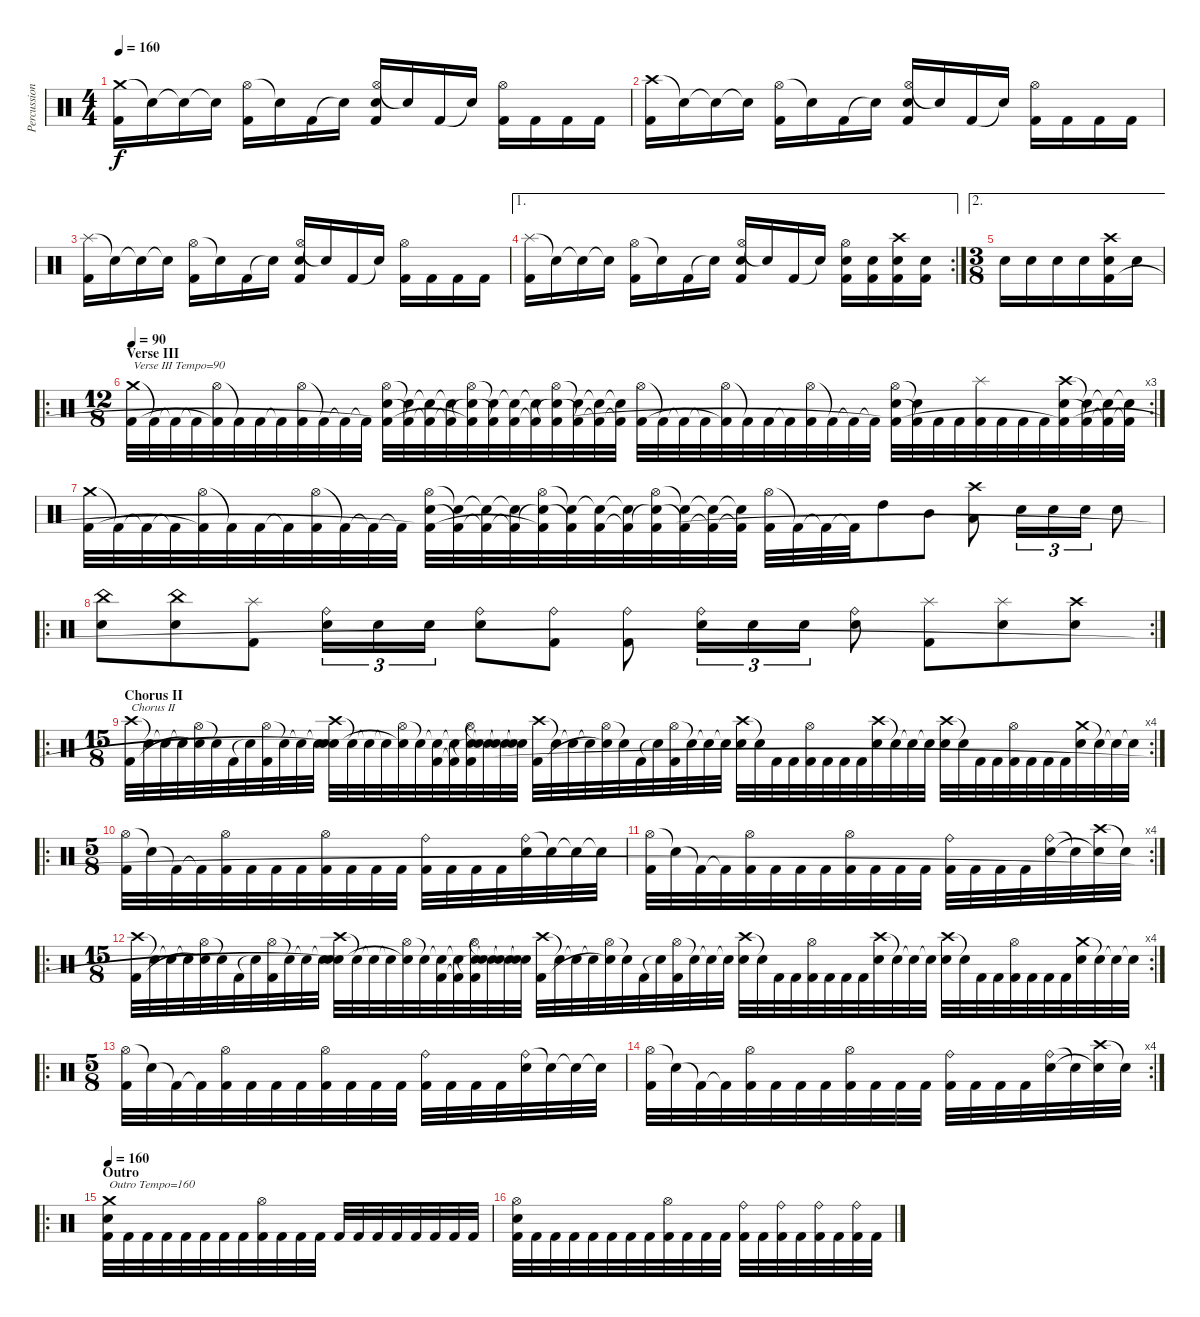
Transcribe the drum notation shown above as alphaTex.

\track ("Percussion [Patrick Robert]" "Percussion") {instrument percussion}
\staff {score}
\articulation defaults
\ts (4 4)
\tempo 160
\clef neutral
\ks c
("Crash medium (hit)" "Kick (hit) 2").16{dy f} "Snare (hit)"{t}.16 "Snare (hit)"{t}.16 "Snare (hit)"{t}.16 ("Hi-Hat (open)" "Kick (hit) 2").16 "Snare (hit)"{t}.16 "Kick (hit) 2".16 "Snare (hit)"{t}.16 ("Hi-Hat (open)" "Electric Snare (hit)" "Kick (hit) 2").16 "Snare (hit)"{t}.16 "Kick (hit) 2".16 "Snare (hit)"{t}.16 ("Hi-Hat (open)" "Kick (hit) 2").16 "Kick (hit) 2".16 "Kick (hit) 2".16 "Kick (hit) 2".16 |
("Crash high (hit)" "Kick (hit) 2").16 "Snare (hit)"{t}.16 "Snare (hit)"{t}.16 "Snare (hit)"{t}.16 ("Hi-Hat (open)" "Kick (hit) 2").16 "Snare (hit)"{t}.16 "Kick (hit) 2".16 "Snare (hit)"{t}.16 ("Hi-Hat (open)" "Electric Snare (hit)" "Kick (hit) 2").16 "Snare (hit)"{t}.16 "Kick (hit) 2".16 "Snare (hit)"{t}.16 ("Hi-Hat (open)" "Kick (hit) 2").16 "Kick (hit) 2".16 "Kick (hit) 2".16 "Kick (hit) 2".16 |
("Splash (hit)" "Kick (hit) 2").16 "Snare (hit)"{t}.16 "Snare (hit)"{t}.16 "Snare (hit)"{t}.16 ("Hi-Hat (open)" "Kick (hit) 2").16 "Snare (hit)"{t}.16 "Kick (hit) 2".16 "Snare (hit)"{t}.16 ("Hi-Hat (open)" "Electric Snare (hit)" "Kick (hit) 2").16 "Snare (hit)"{t}.16 "Kick (hit) 2".16 "Snare (hit)"{t}.16 ("Hi-Hat (open)" "Kick (hit) 2").16 "Kick (hit) 2".16 "Kick (hit) 2".16 "Kick (hit) 2".16 |
\ae 1
\rc 2
("Splash (hit)" "Kick (hit) 2").16 "Snare (hit)"{t}.16 "Snare (hit)"{t}.16 "Snare (hit)"{t}.16 ("Hi-Hat (open)" "Kick (hit) 2").16 "Snare (hit)"{t}.16 "Kick (hit) 2".16 "Snare (hit)"{t}.16 ("Hi-Hat (open)" "Electric Snare (hit)" "Kick (hit) 2").16 "Snare (hit)"{t}.16 "Kick (hit) 2".16 "Snare (hit)"{t}.16 ("Hi-Hat (open)" "Electric Snare (hit)" "Kick (hit) 2").16 ("Electric Snare (hit)" "Kick (hit) 2").16 ("Crash high (hit)" "Electric Snare (hit)" "Kick (hit) 2").16 ("Electric Snare (hit)" "Kick (hit) 2").16 |
\ae 2
\ts (3 8)
"Electric Snare (hit)".16 "Electric Snare (hit)".16 "Electric Snare (hit)".16 "Electric Snare (hit)".16 ("Crash high (hit)" "Electric Snare (hit)" "Kick (hit) 2").16 "Electric Snare (hit)".16 |
\ro
\rc 3
\ts (12 8)
\section ("" "Verse III")
\tempo 90
("Crash medium (hit)" "Kick (hit) 2").32{txt "Verse III Tempo=90"} "Kick (hit) 2"{t}.32 "Kick (hit) 2"{t}.32 "Kick (hit) 2"{t}.32 ("Hi-Hat (open)" "Kick (hit) 2"{t}).32 "Kick (hit) 2"{t}.32 "Kick (hit) 2".32 "Kick (hit) 2"{t}.32 ("Hi-Hat (open)" "Kick (hit) 2").32 "Kick (hit) 2"{t}.32 "Kick (hit) 2"{t}.32 "Kick (hit) 2"{t}.32 ("Hi-Hat (open)" "Electric Snare (hit)" "Kick (hit) 2"{t}).32 ("Snare (hit)"{t} "Kick (hit) 2"{t}).32 ("Snare (hit)"{t} "Kick (hit) 2"{t}).32 ("Snare (hit)"{t} "Kick (hit) 2"{t}).32 ("Hi-Hat (open)" "Snare (hit)"{t} "Kick (hit) 2"{t}).32 ("Snare (hit)"{t} "Kick (hit) 2"{t}).32 ("Snare (hit)"{t} "Kick (hit) 2").32 ("Snare (hit)"{t} "Kick (hit) 2"{t}).32 ("Hi-Hat (open)" "Snare (hit)"{t} "Kick (hit) 2").32 ("Snare (hit)"{t} "Kick (hit) 2"{t}).32 ("Snare (hit)"{t} "Kick (hit) 2"{t}).32 ("Snare (hit)"{t} "Kick (hit) 2"{t}).32 ("Hi-Hat (open)" "Kick (hit) 2").32 "Kick (hit) 2"{t}.32 "Kick (hit) 2"{t}.32 "Kick (hit) 2"{t}.32 ("Hi-Hat (open)" "Kick (hit) 2"{t}).32 "Kick (hit) 2"{t}.32 "Kick (hit) 2".32 "Kick (hit) 2"{t}.32 ("Hi-Hat (open)" "Kick (hit) 2").32 "Kick (hit) 2"{t}.32 "Kick (hit) 2"{t}.32 "Kick (hit) 2"{t}.32 ("Hi-Hat (open)" "Electric Snare (hit)" "Kick (hit) 2"{t}).32 ("Electric Snare (hit)"{t} "Kick (hit) 2"{t}).32 "Kick (hit) 2".32 "Kick (hit) 2".32 ("Splash (hit)" "Kick (hit) 2").32 "Kick (hit) 2".32 "Kick (hit) 2".32 "Kick (hit) 2".32 ("Crash high (hit)" "Electric Snare (hit)" "Kick (hit) 2"{t}).32 ("Snare (hit)"{t} "Kick (hit) 2"{t}).32 ("Snare (hit)"{t} "Kick (hit) 2"{t}).32 ("Snare (hit)"{t} "Kick (hit) 2"{t}).32 |
("Crash medium (hit)" "Kick (hit) 2").32 "Kick (hit) 2"{t}.32 "Kick (hit) 2"{t}.32 "Kick (hit) 2"{t}.32 ("Hi-Hat (open)" "Kick (hit) 2"{t}).32 "Kick (hit) 2"{t}.32 "Kick (hit) 2".32 "Kick (hit) 2"{t}.32 ("Hi-Hat (open)" "Kick (hit) 2").32 "Kick (hit) 2"{t}.32 "Kick (hit) 2"{t}.32 "Kick (hit) 2"{t}.32 ("Hi-Hat (open)" "Electric Snare (hit)" "Kick (hit) 2"{t}).32 ("Snare (hit)"{t} "Kick (hit) 2"{t}).32 ("Snare (hit)"{t} "Kick (hit) 2"{t}).32 ("Snare (hit)"{t} "Kick (hit) 2"{t}).32 ("Hi-Hat (open)" "Snare (hit)"{t} "Kick (hit) 2"{t}).32 ("Snare (hit)"{t} "Kick (hit) 2"{t}).32 ("Snare (hit)"{t} "Kick (hit) 2").32 ("Snare (hit)"{t} "Kick (hit) 2"{t}).32 ("Hi-Hat (open)" "Snare (hit)"{t} "Kick (hit) 2").32 ("Snare (hit)"{t} "Kick (hit) 2"{t}).32 ("Snare (hit)"{t} "Kick (hit) 2"{t}).32 ("Snare (hit)"{t} "Kick (hit) 2"{t}).32 ("Hi-Hat (open)" "Kick (hit) 2").32 "Kick (hit) 2"{t}.32 "Kick (hit) 2"{t}.32 "Kick (hit) 2"{t}.32 "High Tom (hit)".8 "Mid Tom (hit)".8 ("Crash high (hit)" "Low Tom (hit)").8 "Electric Snare (hit)".16{tu (3 2)} "Electric Snare (hit)".16{tu (3 2)} "Electric Snare (hit)".16{tu (3 2)} "Electric Snare (hit)".8 |
\ro
\rc 2
("China (hit)" "Electric Snare (hit)").8 ("China (hit)" "Electric Snare (hit)").8 ("Splash (hit)" "Kick (hit) 2").8 ("Ride (bell)" "Electric Snare (hit)").16{tu (3 2)} "Electric Snare (hit)".16{tu (3 2)} "Electric Snare (hit)".16{tu (3 2)} ("Ride (bell)" "Electric Snare (hit)").8 ("Ride (bell)" "Kick (hit) 2").8 ("Ride (bell)" "Kick (hit) 2").8 ("Ride (bell)" "Electric Snare (hit)").16{tu (3 2)} "Electric Snare (hit)".16{tu (3 2)} "Electric Snare (hit)".16{tu (3 2)} ("Ride (bell)" "Electric Snare (hit)").8 ("Splash (hit)" "Kick (hit) 2").8 ("Splash (hit)" "Electric Snare (hit)").8 ("Crash high (hit)" "Electric Snare (hit)").8 |
\ro
\rc 4
\ts (15 8)
\section ("" "Chorus II")
("Crash high (hit)" "Kick (hit) 2").32{txt "Chorus II"} "Snare (hit)"{t}.32 "Snare (hit)"{t}.32 "Snare (hit)"{t}.32 ("Hi-Hat (open)" "Snare (hit)"{t}).32 "Snare (hit)"{t}.32 "Kick (hit) 2".32 "Snare (hit)"{t}.32 ("Hi-Hat (open)" "Kick (hit) 2").32 "Snare (hit)"{t}.32 "Snare (hit)"{t}.32 "Snare (hit)"{t}.32 ("Crash high (hit)" "Electric Snare (hit)" "Snare (hit)"{t}).32 "Snare (hit)"{t}.32 "Snare (hit)"{t}.32 "Snare (hit)"{t}.32 ("Hi-Hat (open)" "Snare (hit)"{t}).32 "Snare (hit)"{t}.32 ("Snare (hit)"{t} "Kick (hit) 2").32 ("Snare (hit)"{t} "Kick (hit) 2"{t}).32 ("Hi-Hat (open)" "Snare (hit)"{t} "Kick (hit) 2").32 ("Snare (hit)"{t} "Snare (hit)"{t}).32 ("Snare (hit)"{t} "Snare (hit)"{t}).32 ("Snare (hit)"{t} "Snare (hit)"{t}).32 ("Crash high (hit)" "Kick (hit) 2").32 "Snare (hit)"{t}.32 "Snare (hit)"{t}.32 "Snare (hit)"{t}.32 ("Hi-Hat (open)" "Snare (hit)"{t}).32 "Snare (hit)"{t}.32 "Kick (hit) 2".32 "Snare (hit)"{t}.32 ("Hi-Hat (open)" "Kick (hit) 2").32 "Snare (hit)"{t}.32 "Snare (hit)"{t}.32 "Snare (hit)"{t}.32 ("Crash high (hit)" "Electric Snare (hit)").32 "Snare (hit)"{t}.32 "Kick (hit) 2".32 "Kick (hit) 2".32 ("Hi-Hat (open)" "Kick (hit) 2").32 "Kick (hit) 2".32 "Kick (hit) 2".32 "Kick (hit) 2".32 ("Crash high (hit)" "Electric Snare (hit)").32 "Snare (hit)"{t}.32 "Snare (hit)"{t}.32 "Snare (hit)"{t}.32 ("Crash high (hit)" "Electric Snare (hit)").32 "Snare (hit)"{t}.32 "Kick (hit) 2".32 "Kick (hit) 2".32 ("Hi-Hat (open)" "Kick (hit) 2").32 "Kick (hit) 2".32 "Kick (hit) 2".32 "Kick (hit) 2".32 ("Crash medium (hit)" "Electric Snare (hit)").32 "Snare (hit)"{t}.32 "Snare (hit)"{t}.32 "Snare (hit)"{t}.32 |
\ro
\ts (5 8)
("Hi-Hat (open)" "Kick (hit) 2").32 "Snare (hit)"{t}.32 "Kick (hit) 2"{t}.32 "Kick (hit) 2"{t}.32 ("Hi-Hat (open)" "Kick (hit) 2").32 "Kick (hit) 2".32 "Kick (hit) 2".32 "Kick (hit) 2".32 ("Hi-Hat (open)" "Kick (hit) 2").32 "Kick (hit) 2".32 "Kick (hit) 2".32 "Kick (hit) 2".32 ("Ride (bell)" "Kick (hit) 2").32 "Kick (hit) 2".32 "Kick (hit) 2".32 "Kick (hit) 2".32 ("Ride (bell)" "Electric Snare (hit)").32 "Snare (hit)"{t}.32 "Snare (hit)"{t}.32 "Snare (hit)"{t}.32 |
\rc 4
("Hi-Hat (open)" "Kick (hit) 2").32 "Snare (hit)"{t}.32 "Kick (hit) 2"{t}.32 "Kick (hit) 2"{t}.32 ("Hi-Hat (open)" "Kick (hit) 2").32 "Kick (hit) 2".32 "Kick (hit) 2".32 "Kick (hit) 2".32 ("Hi-Hat (open)" "Kick (hit) 2").32 "Kick (hit) 2".32 "Kick (hit) 2".32 "Kick (hit) 2".32 ("Ride (bell)" "Kick (hit) 2").32 "Kick (hit) 2".32 "Kick (hit) 2".32 "Kick (hit) 2".32 ("Ride (bell)" "Electric Snare (hit)").32 "Snare (hit)"{t}.32 ("Crash high (hit)" "Snare (hit)"{t}).32 "Snare (hit)"{t}.32 |
\ro
\rc 4
\ts (15 8)
("Crash high (hit)" "Kick (hit) 2").32 "Snare (hit)"{t}.32 "Snare (hit)"{t}.32 "Snare (hit)"{t}.32 ("Hi-Hat (open)" "Snare (hit)"{t}).32 "Snare (hit)"{t}.32 "Kick (hit) 2".32 "Snare (hit)"{t}.32 ("Hi-Hat (open)" "Kick (hit) 2").32 "Snare (hit)"{t}.32 "Snare (hit)"{t}.32 "Snare (hit)"{t}.32 ("Crash high (hit)" "Electric Snare (hit)" "Snare (hit)"{t}).32 "Snare (hit)"{t}.32 "Snare (hit)"{t}.32 "Snare (hit)"{t}.32 ("Hi-Hat (open)" "Snare (hit)"{t}).32 "Snare (hit)"{t}.32 ("Snare (hit)"{t} "Kick (hit) 2").32 ("Snare (hit)"{t} "Kick (hit) 2"{t}).32 ("Hi-Hat (open)" "Snare (hit)"{t} "Kick (hit) 2").32 ("Snare (hit)"{t} "Snare (hit)"{t}).32 ("Snare (hit)"{t} "Snare (hit)"{t}).32 ("Snare (hit)"{t} "Snare (hit)"{t}).32 ("Crash high (hit)" "Kick (hit) 2").32 "Snare (hit)"{t}.32 "Snare (hit)"{t}.32 "Snare (hit)"{t}.32 ("Hi-Hat (open)" "Snare (hit)"{t}).32 "Snare (hit)"{t}.32 "Kick (hit) 2".32 "Snare (hit)"{t}.32 ("Hi-Hat (open)" "Kick (hit) 2").32 "Snare (hit)"{t}.32 "Snare (hit)"{t}.32 "Snare (hit)"{t}.32 ("Crash high (hit)" "Electric Snare (hit)").32 "Snare (hit)"{t}.32 "Kick (hit) 2".32 "Kick (hit) 2".32 ("Hi-Hat (open)" "Kick (hit) 2").32 "Kick (hit) 2".32 "Kick (hit) 2".32 "Kick (hit) 2".32 ("Crash high (hit)" "Electric Snare (hit)").32 "Snare (hit)"{t}.32 "Snare (hit)"{t}.32 "Snare (hit)"{t}.32 ("Crash high (hit)" "Electric Snare (hit)").32 "Snare (hit)"{t}.32 "Kick (hit) 2".32 "Kick (hit) 2".32 ("Hi-Hat (open)" "Kick (hit) 2").32 "Kick (hit) 2".32 "Kick (hit) 2".32 "Kick (hit) 2".32 ("Crash medium (hit)" "Electric Snare (hit)").32 "Snare (hit)"{t}.32 "Snare (hit)"{t}.32 "Snare (hit)"{t}.32 |
\ro
\ts (5 8)
("Hi-Hat (open)" "Kick (hit) 2").32 "Snare (hit)"{t}.32 "Kick (hit) 2"{t}.32 "Kick (hit) 2"{t}.32 ("Hi-Hat (open)" "Kick (hit) 2").32 "Kick (hit) 2".32 "Kick (hit) 2".32 "Kick (hit) 2".32 ("Hi-Hat (open)" "Kick (hit) 2").32 "Kick (hit) 2".32 "Kick (hit) 2".32 "Kick (hit) 2".32 ("Ride (bell)" "Kick (hit) 2").32 "Kick (hit) 2".32 "Kick (hit) 2".32 "Kick (hit) 2".32 ("Ride (bell)" "Electric Snare (hit)").32 "Snare (hit)"{t}.32 "Snare (hit)"{t}.32 "Snare (hit)"{t}.32 |
\rc 4
("Hi-Hat (open)" "Kick (hit) 2").32 "Snare (hit)"{t}.32 "Kick (hit) 2"{t}.32 "Kick (hit) 2"{t}.32 ("Hi-Hat (open)" "Kick (hit) 2").32 "Kick (hit) 2".32 "Kick (hit) 2".32 "Kick (hit) 2".32 ("Hi-Hat (open)" "Kick (hit) 2").32 "Kick (hit) 2".32 "Kick (hit) 2".32 "Kick (hit) 2".32 ("Ride (bell)" "Kick (hit) 2").32 "Kick (hit) 2".32 "Kick (hit) 2".32 "Kick (hit) 2".32 ("Ride (bell)" "Electric Snare (hit)").32 "Snare (hit)"{t}.32 ("Crash high (hit)" "Snare (hit)"{t}).32 "Snare (hit)"{t}.32 |
\ro
\section ("" "Outro")
\tempo 160
("Crash medium (hit)" "Electric Snare (hit)" "Kick (hit) 2").32{txt "Outro Tempo=160"} "Kick (hit) 2".32 "Kick (hit) 2".32 "Kick (hit) 2".32 "Kick (hit) 2".32 "Kick (hit) 2".32 "Kick (hit) 2".32 "Kick (hit) 2".32 ("Hi-Hat (open)" "Kick (hit) 2").32 "Kick (hit) 2".32 "Kick (hit) 2".32 "Kick (hit) 2".32 "Kick (hit) 2".32 "Kick (hit) 2".32 "Kick (hit) 2".32 "Kick (hit) 2".32 "Kick (hit) 2".32 "Kick (hit) 2".32 "Kick (hit) 2".32 "Kick (hit) 2".32 |
("Hi-Hat (open)" "Electric Snare (hit)" "Kick (hit) 2").32 "Kick (hit) 2".32 "Kick (hit) 2".32 "Kick (hit) 2".32 "Kick (hit) 2".32 "Kick (hit) 2".32 "Kick (hit) 2".32 "Kick (hit) 2".32 ("Hi-Hat (open)" "Kick (hit) 2").32 "Kick (hit) 2".32 "Kick (hit) 2".32 "Kick (hit) 2".32 ("Ride (bell)" "Kick (hit) 2").32 "Kick (hit) 2".32 ("Ride (bell)" "Kick (hit) 2").32 "Kick (hit) 2".32 ("Ride (bell)" "Kick (hit) 2").32 "Kick (hit) 2".32 ("Ride (bell)" "Kick (hit) 2").32 "Kick (hit) 2".32
